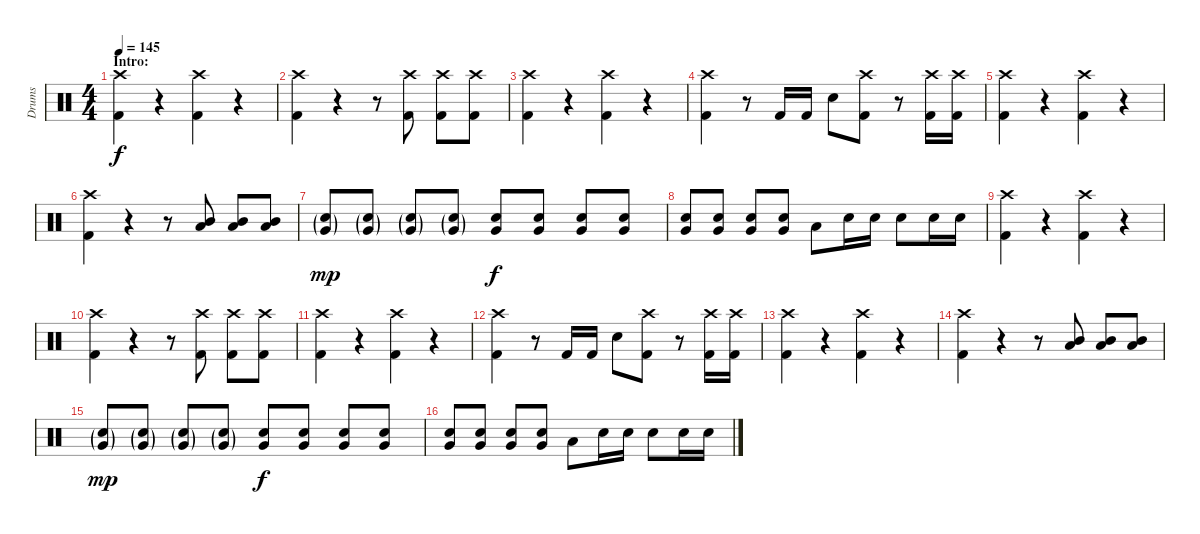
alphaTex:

\track ("Drums" "Drums") {instrument percussion}
\staff {score}
\articulation defaults
\ts (4 4)
\section ("" "Intro:")
\tempo 145
\clef neutral
\ks c
("Crash high (hit)" "Kick (hit) 2").4{dy f} r.4 ("Crash high (hit)" "Kick (hit) 2").4 r.4 |
("Crash high (hit)" "Kick (hit) 2").4 r.4 r.8 ("Crash high (hit)" "Kick (hit) 2").8 ("Crash high (hit)" "Kick (hit) 2").8 ("Crash high (hit)" "Kick (hit) 2").8 |
("Crash high (hit)" "Kick (hit) 2").4 r.4 ("Crash high (hit)" "Kick (hit) 2").4 r.4 |
("Crash high (hit)" "Kick (hit) 2").4 r.8 "Kick (hit) 2".16 "Kick (hit) 2".16 "Electric Snare (hit)".8 ("Crash high (hit)" "Kick (hit) 2").8 r.8 ("Crash high (hit)" "Kick (hit) 2").16 ("Crash high (hit)" "Kick (hit) 2").16 |
("Crash high (hit)" "Kick (hit) 2").4 r.4 ("Crash high (hit)" "Kick (hit) 2").4 r.4 |
("Crash high (hit)" "Kick (hit) 2").4 r.4 r.8 ("Mid Tom (hit)" "Low Tom (hit)").8 ("Mid Tom (hit)" "Low Tom (hit)").8 ("Mid Tom (hit)" "Low Tom (hit)").8 |
("Electric Snare (hit)"{g} "Very Low Tom (hit)"{g}).8{dy mp} ("Electric Snare (hit)"{g} "Very Low Tom (hit)"{g}).8 ("Electric Snare (hit)"{g} "Very Low Tom (hit)"{g}).8 ("Electric Snare (hit)"{g} "Very Low Tom (hit)"{g}).8 ("Electric Snare (hit)" "Very Low Tom (hit)").8{dy f} ("Electric Snare (hit)" "Very Low Tom (hit)").8 ("Electric Snare (hit)" "Very Low Tom (hit)").8 ("Electric Snare (hit)" "Very Low Tom (hit)").8 |
("Electric Snare (hit)" "Very Low Tom (hit)").8 ("Electric Snare (hit)" "Very Low Tom (hit)").8 ("Electric Snare (hit)" "Very Low Tom (hit)").8 ("Electric Snare (hit)" "Very Low Tom (hit)").8 "Low Tom (hit)".8 "Electric Snare (hit)".16 "Electric Snare (hit)".16 "Electric Snare (hit)".8 "Electric Snare (hit)".16 "Electric Snare (hit)".16 |
("Crash high (hit)" "Kick (hit) 2").4 r.4 ("Crash high (hit)" "Kick (hit) 2").4 r.4 |
("Crash high (hit)" "Kick (hit) 2").4 r.4 r.8 ("Crash high (hit)" "Kick (hit) 2").8 ("Crash high (hit)" "Kick (hit) 2").8 ("Crash high (hit)" "Kick (hit) 2").8 |
("Crash high (hit)" "Kick (hit) 2").4 r.4 ("Crash high (hit)" "Kick (hit) 2").4 r.4 |
("Crash high (hit)" "Kick (hit) 2").4 r.8 "Kick (hit) 2".16 "Kick (hit) 2".16 "Electric Snare (hit)".8 ("Crash high (hit)" "Kick (hit) 2").8 r.8 ("Crash high (hit)" "Kick (hit) 2").16 ("Crash high (hit)" "Kick (hit) 2").16 |
("Crash high (hit)" "Kick (hit) 2").4 r.4 ("Crash high (hit)" "Kick (hit) 2").4 r.4 |
("Crash high (hit)" "Kick (hit) 2").4 r.4 r.8 ("Mid Tom (hit)" "Low Tom (hit)").8 ("Mid Tom (hit)" "Low Tom (hit)").8 ("Mid Tom (hit)" "Low Tom (hit)").8 |
("Electric Snare (hit)"{g} "Very Low Tom (hit)"{g}).8{dy mp} ("Electric Snare (hit)"{g} "Very Low Tom (hit)"{g}).8 ("Electric Snare (hit)"{g} "Very Low Tom (hit)"{g}).8 ("Electric Snare (hit)"{g} "Very Low Tom (hit)"{g}).8 ("Electric Snare (hit)" "Very Low Tom (hit)").8{dy f} ("Electric Snare (hit)" "Very Low Tom (hit)").8 ("Electric Snare (hit)" "Very Low Tom (hit)").8 ("Electric Snare (hit)" "Very Low Tom (hit)").8 |
("Electric Snare (hit)" "Very Low Tom (hit)").8 ("Electric Snare (hit)" "Very Low Tom (hit)").8 ("Electric Snare (hit)" "Very Low Tom (hit)").8 ("Electric Snare (hit)" "Very Low Tom (hit)").8 "Low Tom (hit)".8 "Electric Snare (hit)".16 "Electric Snare (hit)".16 "Electric Snare (hit)".8 "Electric Snare (hit)".16 "Electric Snare (hit)".16
